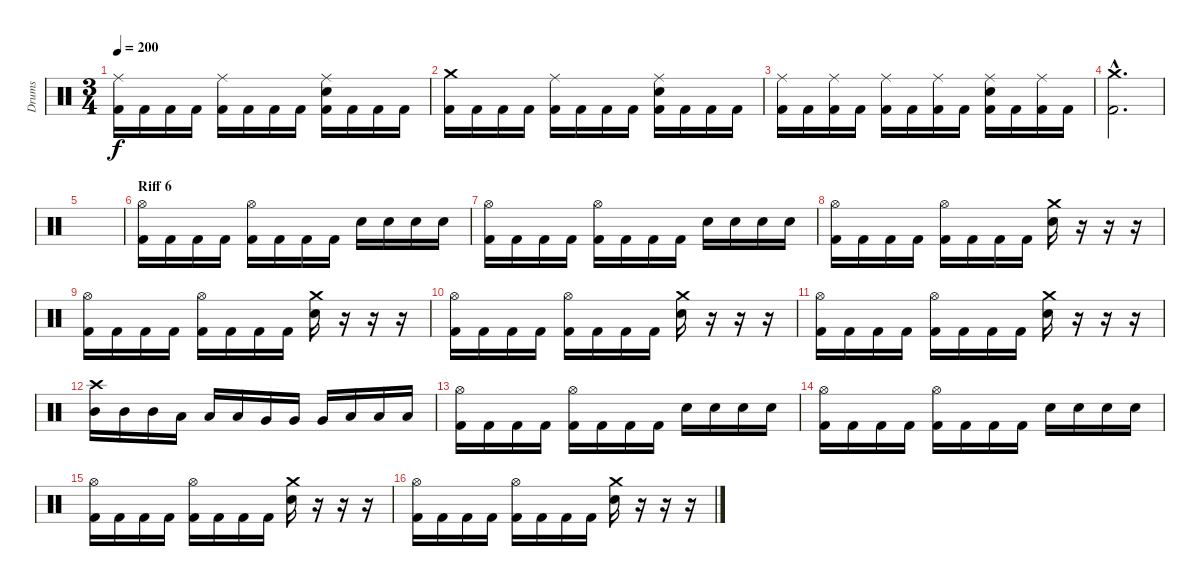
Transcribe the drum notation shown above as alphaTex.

\track ("Drums" "Drums") {instrument percussion}
\staff {score}
\articulation defaults
\ts (3 4)
\tempo 200
\clef neutral
\ks c
("Ride (middle)" "Kick (hit) 2").16{dy f} "Kick (hit) 2".16 "Kick (hit) 2".16 "Kick (hit) 2".16 ("Ride (middle)" "Kick (hit) 2").16 "Kick (hit) 2".16 "Kick (hit) 2".16 "Kick (hit) 2".16 ("Ride (middle)" "Electric Snare (hit)" "Kick (hit) 2").16 "Kick (hit) 2".16 "Kick (hit) 2".16 "Kick (hit) 2".16 |
("Crash medium (hit)" "Kick (hit) 2").16 "Kick (hit) 2".16 "Kick (hit) 2".16 "Kick (hit) 2".16 ("Ride (middle)" "Kick (hit) 2").16 "Kick (hit) 2".16 "Kick (hit) 2".16 "Kick (hit) 2".16 ("Ride (middle)" "Electric Snare (hit)" "Kick (hit) 2").16 "Kick (hit) 2".16 "Kick (hit) 2".16 "Kick (hit) 2".16 |
("Ride (middle)" "Kick (hit) 2").16 "Kick (hit) 2".16 ("Ride (middle)" "Kick (hit) 2").16 "Kick (hit) 2".16 ("Ride (middle)" "Kick (hit) 2").16 "Kick (hit) 2".16 ("Ride (middle)" "Kick (hit) 2").16 "Kick (hit) 2".16 ("Ride (middle)" "Electric Snare (hit)" "Kick (hit) 2").16 "Kick (hit) 2".16 ("Ride (middle)" "Kick (hit) 2").16 "Kick (hit) 2".16 |
("Crash medium (hit)"{hac} "Kick (hit) 2"{hac}).2{d} |
|
\section ("" "Riff 6")
("Hi-Hat (open)" "Kick (hit) 2").16 "Kick (hit) 2".16 "Kick (hit) 2".16 "Kick (hit) 2".16 ("Hi-Hat (open)" "Kick (hit) 2").16 "Kick (hit) 2".16 "Kick (hit) 2".16 "Kick (hit) 2".16 "Electric Snare (hit)".16 "Electric Snare (hit)".16 "Electric Snare (hit)".16 "Electric Snare (hit)".16 |
("Hi-Hat (open)" "Kick (hit) 2").16 "Kick (hit) 2".16 "Kick (hit) 2".16 "Kick (hit) 2".16 ("Hi-Hat (open)" "Kick (hit) 2").16 "Kick (hit) 2".16 "Kick (hit) 2".16 "Kick (hit) 2".16 "Electric Snare (hit)".16 "Electric Snare (hit)".16 "Electric Snare (hit)".16 "Electric Snare (hit)".16 |
("Hi-Hat (open)" "Kick (hit) 2").16 "Kick (hit) 2".16 "Kick (hit) 2".16 "Kick (hit) 2".16 ("Hi-Hat (open)" "Kick (hit) 2").16 "Kick (hit) 2".16 "Kick (hit) 2".16 "Kick (hit) 2".16 ("Crash medium (hit)" "Electric Snare (hit)").16 r.16 r.16 r.16 |
("Hi-Hat (open)" "Kick (hit) 2").16 "Kick (hit) 2".16 "Kick (hit) 2".16 "Kick (hit) 2".16 ("Hi-Hat (open)" "Kick (hit) 2").16 "Kick (hit) 2".16 "Kick (hit) 2".16 "Kick (hit) 2".16 ("Crash medium (hit)" "Electric Snare (hit)").16 r.16 r.16 r.16 |
("Hi-Hat (open)" "Kick (hit) 2").16 "Kick (hit) 2".16 "Kick (hit) 2".16 "Kick (hit) 2".16 ("Hi-Hat (open)" "Kick (hit) 2").16 "Kick (hit) 2".16 "Kick (hit) 2".16 "Kick (hit) 2".16 ("Crash medium (hit)" "Electric Snare (hit)").16 r.16 r.16 r.16 |
("Hi-Hat (open)" "Kick (hit) 2").16 "Kick (hit) 2".16 "Kick (hit) 2".16 "Kick (hit) 2".16 ("Hi-Hat (open)" "Kick (hit) 2").16 "Kick (hit) 2".16 "Kick (hit) 2".16 "Kick (hit) 2".16 ("Crash medium (hit)" "Electric Snare (hit)").16 r.16 r.16 r.16 |
("Mid Tom (hit)" "Crash high (hit)").16 "Mid Tom (hit)".16 "Mid Tom (hit)".16 "Low Tom (hit)".16 "Low Tom (hit)".16 "Low Tom (hit)".16 "Very Low Tom (hit)".16 "Very Low Tom (hit)".16 "Very Low Tom (hit)".16 "Low Floor Tom (hit)".16 "Low Floor Tom (hit)".16 "Low Floor Tom (hit)".16 |
("Hi-Hat (open)" "Kick (hit) 2").16 "Kick (hit) 2".16 "Kick (hit) 2".16 "Kick (hit) 2".16 ("Hi-Hat (open)" "Kick (hit) 2").16 "Kick (hit) 2".16 "Kick (hit) 2".16 "Kick (hit) 2".16 "Electric Snare (hit)".16 "Electric Snare (hit)".16 "Electric Snare (hit)".16 "Electric Snare (hit)".16 |
("Hi-Hat (open)" "Kick (hit) 2").16 "Kick (hit) 2".16 "Kick (hit) 2".16 "Kick (hit) 2".16 ("Hi-Hat (open)" "Kick (hit) 2").16 "Kick (hit) 2".16 "Kick (hit) 2".16 "Kick (hit) 2".16 "Electric Snare (hit)".16 "Electric Snare (hit)".16 "Electric Snare (hit)".16 "Electric Snare (hit)".16 |
("Hi-Hat (open)" "Kick (hit) 2").16 "Kick (hit) 2".16 "Kick (hit) 2".16 "Kick (hit) 2".16 ("Hi-Hat (open)" "Kick (hit) 2").16 "Kick (hit) 2".16 "Kick (hit) 2".16 "Kick (hit) 2".16 ("Crash medium (hit)" "Electric Snare (hit)").16 r.16 r.16 r.16 |
("Hi-Hat (open)" "Kick (hit) 2").16 "Kick (hit) 2".16 "Kick (hit) 2".16 "Kick (hit) 2".16 ("Hi-Hat (open)" "Kick (hit) 2").16 "Kick (hit) 2".16 "Kick (hit) 2".16 "Kick (hit) 2".16 ("Crash medium (hit)" "Electric Snare (hit)").16 r.16 r.16 r.16
